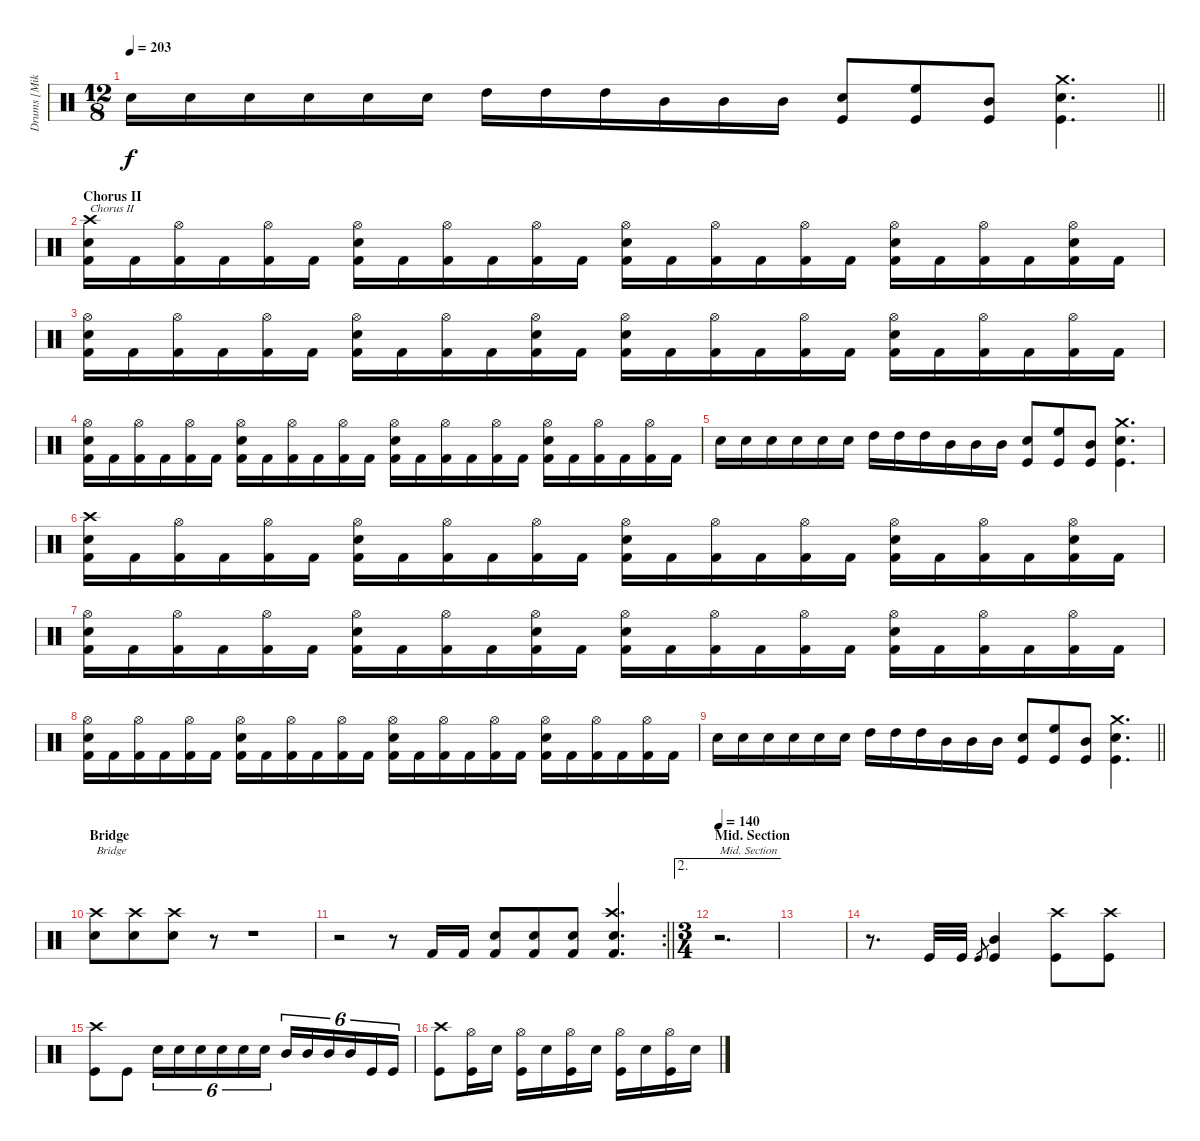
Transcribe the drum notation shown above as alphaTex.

\track ("Drums [Mike Smith]" "Drums [Mik") {instrument percussion}
\staff {score}
\articulation defaults
\ts (12 8)
\tempo 203
\clef neutral
\barLineRight lightlight
\ks c "Electric Snare (hit)".16{dy f} "Electric Snare (hit)".16 "Electric Snare (hit)".16 "Electric Snare (hit)".16 "Electric Snare (hit)".16 "Electric Snare (hit)".16 "High Tom (hit)".16 "High Tom (hit)".16 "High Tom (hit)".16 "Mid Tom (hit)".16 "Mid Tom (hit)".16 "Mid Tom (hit)".16
("Electric Snare (hit)" "Kick (hit)").8 ("High Floor Tom (hit)" "Kick (hit)").8 ("Mid Tom (hit)" "Kick (hit)").8 ("Crash medium (hit)" "Electric Snare (hit)" "Kick (hit)").4{d} |
\section ("" "Chorus II")
("Crash high (hit)" "Electric Snare (hit)" "Kick (hit) 2").16{txt "Chorus II"} "Kick (hit) 2".16 ("Hi-Hat (open)" "Kick (hit) 2").16 "Kick (hit) 2".16 ("Hi-Hat (open)" "Kick (hit) 2").16 "Kick (hit) 2".16 ("Hi-Hat (open)" "Electric Snare (hit)" "Kick (hit) 2").16 "Kick (hit) 2".16 ("Hi-Hat (open)" "Kick (hit) 2").16 "Kick (hit) 2".16 ("Hi-Hat (open)" "Kick (hit) 2").16 "Kick (hit) 2".16 ("Hi-Hat (open)" "Electric Snare (hit)" "Kick (hit) 2").16 "Kick (hit) 2".16 ("Hi-Hat (open)" "Kick (hit) 2").16 "Kick (hit) 2".16 ("Hi-Hat (open)" "Kick (hit) 2").16 "Kick (hit) 2".16 ("Hi-Hat (open)" "Electric Snare (hit)" "Kick (hit) 2").16 "Kick (hit) 2".16 ("Hi-Hat (open)" "Kick (hit) 2").16 "Kick (hit) 2".16 ("Hi-Hat (open)" "Electric Snare (hit)" "Kick (hit) 2").16 "Kick (hit) 2".16 |
("Hi-Hat (open)" "Electric Snare (hit)" "Kick (hit) 2").16 "Kick (hit) 2".16 ("Hi-Hat (open)" "Kick (hit) 2").16 "Kick (hit) 2".16 ("Hi-Hat (open)" "Kick (hit) 2").16 "Kick (hit) 2".16 ("Hi-Hat (open)" "Electric Snare (hit)" "Kick (hit) 2").16 "Kick (hit) 2".16 ("Hi-Hat (open)" "Kick (hit) 2").16 "Kick (hit) 2".16 ("Hi-Hat (open)" "Electric Snare (hit)" "Kick (hit) 2").16 "Kick (hit) 2".16 ("Hi-Hat (open)" "Electric Snare (hit)" "Kick (hit) 2").16 "Kick (hit) 2".16 ("Hi-Hat (open)" "Kick (hit) 2").16 "Kick (hit) 2".16 ("Hi-Hat (open)" "Kick (hit) 2").16 "Kick (hit) 2".16 ("Hi-Hat (open)" "Electric Snare (hit)" "Kick (hit) 2").16 "Kick (hit) 2".16 ("Hi-Hat (open)" "Kick (hit) 2").16 "Kick (hit) 2".16 ("Hi-Hat (open)" "Kick (hit) 2").16 "Kick (hit) 2".16 |
("Hi-Hat (open)" "Electric Snare (hit)" "Kick (hit) 2").16 "Kick (hit) 2".16 ("Hi-Hat (open)" "Kick (hit) 2").16 "Kick (hit) 2".16 ("Hi-Hat (open)" "Kick (hit) 2").16 "Kick (hit) 2".16 ("Hi-Hat (open)" "Electric Snare (hit)" "Kick (hit) 2").16 "Kick (hit) 2".16 ("Hi-Hat (open)" "Kick (hit) 2").16 "Kick (hit) 2".16 ("Hi-Hat (open)" "Kick (hit) 2").16 "Kick (hit) 2".16 ("Hi-Hat (open)" "Electric Snare (hit)" "Kick (hit) 2").16 "Kick (hit) 2".16 ("Hi-Hat (open)" "Kick (hit) 2").16 "Kick (hit) 2".16 ("Hi-Hat (open)" "Kick (hit) 2").16 "Kick (hit) 2".16 ("Hi-Hat (open)" "Electric Snare (hit)" "Kick (hit) 2").16 "Kick (hit) 2".16 ("Hi-Hat (open)" "Kick (hit) 2").16 "Kick (hit) 2".16 ("Hi-Hat (open)" "Kick (hit) 2").16 "Kick (hit) 2".16 |
"Electric Snare (hit)".16 "Electric Snare (hit)".16 "Electric Snare (hit)".16 "Electric Snare (hit)".16 "Electric Snare (hit)".16 "Electric Snare (hit)".16 "High Tom (hit)".16 "High Tom (hit)".16 "High Tom (hit)".16 "Mid Tom (hit)".16 "Mid Tom (hit)".16 "Mid Tom (hit)".16 ("Electric Snare (hit)" "Kick (hit)").8 ("High Floor Tom (hit)" "Kick (hit)").8 ("Mid Tom (hit)" "Kick (hit)").8 ("Crash medium (hit)" "Electric Snare (hit)" "Kick (hit)").4{d} |
("Crash high (hit)" "Electric Snare (hit)" "Kick (hit) 2").16 "Kick (hit) 2".16 ("Hi-Hat (open)" "Kick (hit) 2").16 "Kick (hit) 2".16 ("Hi-Hat (open)" "Kick (hit) 2").16 "Kick (hit) 2".16 ("Hi-Hat (open)" "Electric Snare (hit)" "Kick (hit) 2").16 "Kick (hit) 2".16 ("Hi-Hat (open)" "Kick (hit) 2").16 "Kick (hit) 2".16 ("Hi-Hat (open)" "Kick (hit) 2").16 "Kick (hit) 2".16 ("Hi-Hat (open)" "Electric Snare (hit)" "Kick (hit) 2").16 "Kick (hit) 2".16 ("Hi-Hat (open)" "Kick (hit) 2").16 "Kick (hit) 2".16 ("Hi-Hat (open)" "Kick (hit) 2").16 "Kick (hit) 2".16 ("Hi-Hat (open)" "Electric Snare (hit)" "Kick (hit) 2").16 "Kick (hit) 2".16 ("Hi-Hat (open)" "Kick (hit) 2").16 "Kick (hit) 2".16 ("Hi-Hat (open)" "Electric Snare (hit)" "Kick (hit) 2").16 "Kick (hit) 2".16 |
("Hi-Hat (open)" "Electric Snare (hit)" "Kick (hit) 2").16 "Kick (hit) 2".16 ("Hi-Hat (open)" "Kick (hit) 2").16 "Kick (hit) 2".16 ("Hi-Hat (open)" "Kick (hit) 2").16 "Kick (hit) 2".16 ("Hi-Hat (open)" "Electric Snare (hit)" "Kick (hit) 2").16 "Kick (hit) 2".16 ("Hi-Hat (open)" "Kick (hit) 2").16 "Kick (hit) 2".16 ("Hi-Hat (open)" "Electric Snare (hit)" "Kick (hit) 2").16 "Kick (hit) 2".16 ("Hi-Hat (open)" "Electric Snare (hit)" "Kick (hit) 2").16 "Kick (hit) 2".16 ("Hi-Hat (open)" "Kick (hit) 2").16 "Kick (hit) 2".16 ("Hi-Hat (open)" "Kick (hit) 2").16 "Kick (hit) 2".16 ("Hi-Hat (open)" "Electric Snare (hit)" "Kick (hit) 2").16 "Kick (hit) 2".16 ("Hi-Hat (open)" "Kick (hit) 2").16 "Kick (hit) 2".16 ("Hi-Hat (open)" "Kick (hit) 2").16 "Kick (hit) 2".16 |
("Hi-Hat (open)" "Electric Snare (hit)" "Kick (hit) 2").16 "Kick (hit) 2".16 ("Hi-Hat (open)" "Kick (hit) 2").16 "Kick (hit) 2".16 ("Hi-Hat (open)" "Kick (hit) 2").16 "Kick (hit) 2".16 ("Hi-Hat (open)" "Electric Snare (hit)" "Kick (hit) 2").16 "Kick (hit) 2".16 ("Hi-Hat (open)" "Kick (hit) 2").16 "Kick (hit) 2".16 ("Hi-Hat (open)" "Kick (hit) 2").16 "Kick (hit) 2".16 ("Hi-Hat (open)" "Electric Snare (hit)" "Kick (hit) 2").16 "Kick (hit) 2".16 ("Hi-Hat (open)" "Kick (hit) 2").16 "Kick (hit) 2".16 ("Hi-Hat (open)" "Kick (hit) 2").16 "Kick (hit) 2".16 ("Hi-Hat (open)" "Electric Snare (hit)" "Kick (hit) 2").16 "Kick (hit) 2".16 ("Hi-Hat (open)" "Kick (hit) 2").16 "Kick (hit) 2".16 ("Hi-Hat (open)" "Kick (hit) 2").16 "Kick (hit) 2".16 |
\barLineRight lightlight "Electric Snare (hit)".16 "Electric Snare (hit)".16 "Electric Snare (hit)".16 "Electric Snare (hit)".16 "Electric Snare (hit)".16 "Electric Snare (hit)".16 "High Tom (hit)".16 "High Tom (hit)".16 "High Tom (hit)".16 "Mid Tom (hit)".16 "Mid Tom (hit)".16 "Mid Tom (hit)".16
("Electric Snare (hit)" "Kick (hit)").8 ("High Floor Tom (hit)" "Kick (hit)").8 ("Mid Tom (hit)" "Kick (hit)").8 ("Crash medium (hit)" "Electric Snare (hit)" "Kick (hit)").4{d} |
\section ("" "Bridge")
("Electric Snare (hit)" "Crash high (hit)").8{txt "Bridge"} ("Electric Snare (hit)" "Crash high (hit)").8 ("Electric Snare (hit)" "Crash high (hit)").8 r.8 r.1 |
\rc 2
\barLineRight lightlight
r.2 r.8 "Kick (hit) 2".16 "Kick (hit) 2".16 ("Electric Snare (hit)" "Kick (hit) 2").8 ("Electric Snare (hit)" "Kick (hit) 2").8 ("Electric Snare (hit)" "Kick (hit) 2").8 ("Crash high (hit)" "Electric Snare (hit)" "Kick (hit) 2").4{d} |
\ae 2
\ts (3 4)
\section ("" "Mid. Section")
\tempo 140
r.2{d txt "Mid. Section"} |
|
r.8{d} "Kick (hit)".32 "Kick (hit)".32 "Kick (hit)".8{gr} ("Mid Tom (hit)" "Kick (hit)").4 ("Crash high (hit)" "Kick (hit)").8 ("Crash high (hit)" "Kick (hit)").8 |
("Crash high (hit)" "Kick (hit)").8 "Kick (hit)".8 "Electric Snare (hit)".16{tu (6 4)} "Electric Snare (hit)".16{tu (6 4)} "Electric Snare (hit)".16{tu (6 4)} "Electric Snare (hit)".16{tu (6 4)} "Electric Snare (hit)".16{tu (6 4)} "Electric Snare (hit)".16{tu (6 4)} "Mid Tom (hit)".16{tu (6 4)} "Mid Tom (hit)".16{tu (6 4)} "Mid Tom (hit)".16{tu (6 4)} "Mid Tom (hit)".16{tu (6 4)} "Kick (hit)".16{tu (6 4)} "Kick (hit)".16{tu (6 4)} |
("Crash high (hit)" "Kick (hit)").8 ("Hi-Hat (open)" "Kick (hit)").16 "Electric Snare (hit)".16 ("Hi-Hat (open)" "Kick (hit)").16 "Electric Snare (hit)".16 ("Hi-Hat (open)" "Kick (hit)").16 "Electric Snare (hit)".16 ("Hi-Hat (open)" "Kick (hit)").16 "Electric Snare (hit)".16 ("Hi-Hat (open)" "Kick (hit)").16 "Electric Snare (hit)".16
